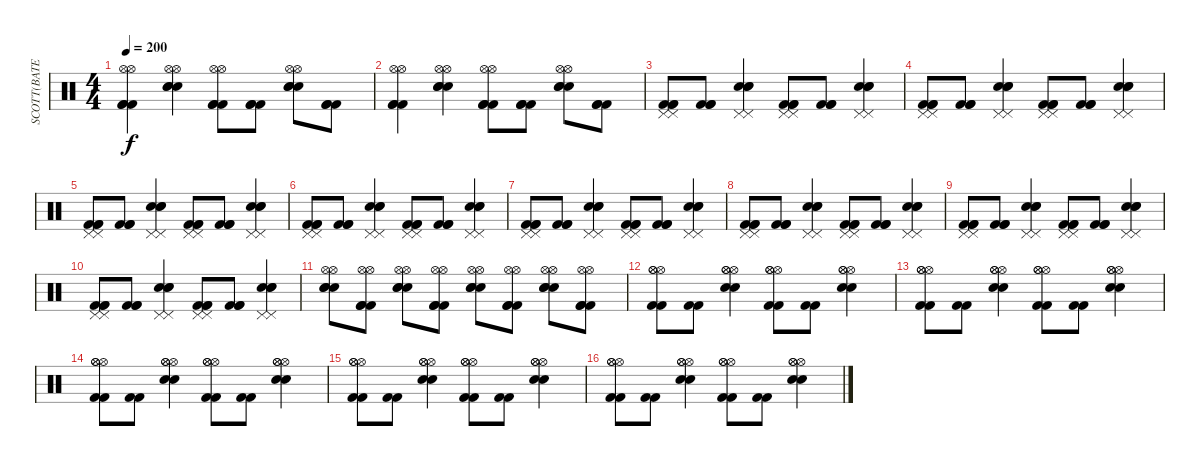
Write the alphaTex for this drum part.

\track ("SCOTT(BATERIA)" "SCOTT(BATE") {instrument percussion}
\staff {score}
\articulation defaults
\ts (4 4)
\tempo 200
\clef neutral
\ks c
("Kick (hit) 2" "Kick (hit) 2" "Kick (hit) 2" "Hi-Hat (open)" "Hi-Hat (open)").4{dy f} ("Snare (hit) 2" "Snare (hit) 2" "Snare (hit) 2" "Hi-Hat (open)" "Hi-Hat (open)").4 ("Kick (hit) 2" "Kick (hit) 2" "Kick (hit) 2" "Hi-Hat (open)" "Hi-Hat (open)").8 ("Kick (hit) 2" "Kick (hit) 2" "Kick (hit) 2").8 ("Snare (hit) 2" "Snare (hit) 2" "Snare (hit) 2" "Hi-Hat (open)" "Hi-Hat (open)").8 ("Kick (hit) 2" "Kick (hit) 2" "Kick (hit) 2").8 |
("Kick (hit) 2" "Kick (hit) 2" "Kick (hit) 2" "Hi-Hat (open)" "Hi-Hat (open)").4 ("Snare (hit) 2" "Snare (hit) 2" "Snare (hit) 2" "Hi-Hat (open)" "Hi-Hat (open)").4 ("Kick (hit) 2" "Kick (hit) 2" "Kick (hit) 2" "Hi-Hat (open)" "Hi-Hat (open)").8 ("Kick (hit) 2" "Kick (hit) 2" "Kick (hit) 2").8 ("Snare (hit) 2" "Snare (hit) 2" "Snare (hit) 2" "Hi-Hat (open)" "Hi-Hat (open)").8 ("Kick (hit) 2" "Kick (hit) 2" "Kick (hit) 2").8 |
("Kick (hit) 2" "Kick (hit) 2" "Kick (hit) 2" "Pedal Hi-Hat (hit)" "Pedal Hi-Hat (hit)").8 ("Kick (hit) 2" "Kick (hit) 2" "Kick (hit) 2").8 ("Snare (hit) 2" "Snare (hit) 2" "Snare (hit) 2" "Pedal Hi-Hat (hit)" "Pedal Hi-Hat (hit)").4 ("Kick (hit) 2" "Kick (hit) 2" "Kick (hit) 2" "Pedal Hi-Hat (hit)" "Pedal Hi-Hat (hit)").8 ("Kick (hit) 2" "Kick (hit) 2" "Kick (hit) 2").8 ("Snare (hit) 2" "Snare (hit) 2" "Snare (hit) 2" "Pedal Hi-Hat (hit)" "Pedal Hi-Hat (hit)").4 |
("Kick (hit) 2" "Kick (hit) 2" "Kick (hit) 2" "Pedal Hi-Hat (hit)" "Pedal Hi-Hat (hit)").8 ("Kick (hit) 2" "Kick (hit) 2" "Kick (hit) 2").8 ("Snare (hit) 2" "Snare (hit) 2" "Snare (hit) 2" "Pedal Hi-Hat (hit)" "Pedal Hi-Hat (hit)").4 ("Kick (hit) 2" "Kick (hit) 2" "Kick (hit) 2" "Pedal Hi-Hat (hit)" "Pedal Hi-Hat (hit)").8 ("Kick (hit) 2" "Kick (hit) 2" "Kick (hit) 2").8 ("Snare (hit) 2" "Snare (hit) 2" "Snare (hit) 2" "Pedal Hi-Hat (hit)" "Pedal Hi-Hat (hit)").4 |
("Kick (hit) 2" "Kick (hit) 2" "Kick (hit) 2" "Pedal Hi-Hat (hit)" "Pedal Hi-Hat (hit)").8 ("Kick (hit) 2" "Kick (hit) 2" "Kick (hit) 2").8 ("Snare (hit) 2" "Snare (hit) 2" "Snare (hit) 2" "Pedal Hi-Hat (hit)" "Pedal Hi-Hat (hit)").4 ("Kick (hit) 2" "Kick (hit) 2" "Kick (hit) 2" "Pedal Hi-Hat (hit)" "Pedal Hi-Hat (hit)").8 ("Kick (hit) 2" "Kick (hit) 2" "Kick (hit) 2").8 ("Snare (hit) 2" "Snare (hit) 2" "Snare (hit) 2" "Pedal Hi-Hat (hit)" "Pedal Hi-Hat (hit)").4 |
("Kick (hit) 2" "Kick (hit) 2" "Kick (hit) 2" "Pedal Hi-Hat (hit)" "Pedal Hi-Hat (hit)").8 ("Kick (hit) 2" "Kick (hit) 2" "Kick (hit) 2").8 ("Snare (hit) 2" "Snare (hit) 2" "Snare (hit) 2" "Pedal Hi-Hat (hit)" "Pedal Hi-Hat (hit)").4 ("Kick (hit) 2" "Kick (hit) 2" "Kick (hit) 2" "Pedal Hi-Hat (hit)" "Pedal Hi-Hat (hit)").8 ("Kick (hit) 2" "Kick (hit) 2" "Kick (hit) 2").8 ("Snare (hit) 2" "Snare (hit) 2" "Snare (hit) 2" "Pedal Hi-Hat (hit)" "Pedal Hi-Hat (hit)").4 |
("Kick (hit) 2" "Kick (hit) 2" "Kick (hit) 2" "Pedal Hi-Hat (hit)" "Pedal Hi-Hat (hit)").8 ("Kick (hit) 2" "Kick (hit) 2" "Kick (hit) 2").8 ("Snare (hit) 2" "Snare (hit) 2" "Snare (hit) 2" "Pedal Hi-Hat (hit)" "Pedal Hi-Hat (hit)").4 ("Kick (hit) 2" "Kick (hit) 2" "Kick (hit) 2" "Pedal Hi-Hat (hit)" "Pedal Hi-Hat (hit)").8 ("Kick (hit) 2" "Kick (hit) 2" "Kick (hit) 2").8 ("Snare (hit) 2" "Snare (hit) 2" "Snare (hit) 2" "Pedal Hi-Hat (hit)" "Pedal Hi-Hat (hit)").4 |
("Kick (hit) 2" "Kick (hit) 2" "Kick (hit) 2" "Pedal Hi-Hat (hit)" "Pedal Hi-Hat (hit)").8 ("Kick (hit) 2" "Kick (hit) 2" "Kick (hit) 2").8 ("Snare (hit) 2" "Snare (hit) 2" "Snare (hit) 2" "Pedal Hi-Hat (hit)" "Pedal Hi-Hat (hit)").4 ("Kick (hit) 2" "Kick (hit) 2" "Kick (hit) 2" "Pedal Hi-Hat (hit)" "Pedal Hi-Hat (hit)").8 ("Kick (hit) 2" "Kick (hit) 2" "Kick (hit) 2").8 ("Snare (hit) 2" "Snare (hit) 2" "Snare (hit) 2" "Pedal Hi-Hat (hit)" "Pedal Hi-Hat (hit)").4 |
("Kick (hit) 2" "Kick (hit) 2" "Kick (hit) 2" "Pedal Hi-Hat (hit)" "Pedal Hi-Hat (hit)").8 ("Kick (hit) 2" "Kick (hit) 2" "Kick (hit) 2").8 ("Snare (hit) 2" "Snare (hit) 2" "Snare (hit) 2" "Pedal Hi-Hat (hit)" "Pedal Hi-Hat (hit)").4 ("Kick (hit) 2" "Kick (hit) 2" "Kick (hit) 2" "Pedal Hi-Hat (hit)" "Pedal Hi-Hat (hit)").8 ("Kick (hit) 2" "Kick (hit) 2" "Kick (hit) 2").8 ("Snare (hit) 2" "Snare (hit) 2" "Snare (hit) 2" "Pedal Hi-Hat (hit)" "Pedal Hi-Hat (hit)").4 |
("Kick (hit) 2" "Kick (hit) 2" "Kick (hit) 2" "Pedal Hi-Hat (hit)" "Pedal Hi-Hat (hit)").8 ("Kick (hit) 2" "Kick (hit) 2" "Kick (hit) 2").8 ("Snare (hit) 2" "Snare (hit) 2" "Snare (hit) 2" "Pedal Hi-Hat (hit)" "Pedal Hi-Hat (hit)").4 ("Kick (hit) 2" "Kick (hit) 2" "Kick (hit) 2" "Pedal Hi-Hat (hit)" "Pedal Hi-Hat (hit)").8 ("Kick (hit) 2" "Kick (hit) 2" "Kick (hit) 2").8 ("Snare (hit) 2" "Snare (hit) 2" "Snare (hit) 2" "Pedal Hi-Hat (hit)" "Pedal Hi-Hat (hit)").4 |
("Snare (hit) 2" "Snare (hit) 2" "Snare (hit) 2" "Hi-Hat (open)" "Hi-Hat (open)").8 ("Kick (hit) 2" "Kick (hit) 2" "Kick (hit) 2" "Hi-Hat (open)" "Hi-Hat (open)").8 ("Snare (hit) 2" "Snare (hit) 2" "Snare (hit) 2" "Hi-Hat (open)" "Hi-Hat (open)").8 ("Kick (hit) 2" "Kick (hit) 2" "Kick (hit) 2" "Hi-Hat (open)" "Hi-Hat (open)").8 ("Snare (hit) 2" "Snare (hit) 2" "Snare (hit) 2" "Hi-Hat (open)" "Hi-Hat (open)").8 ("Kick (hit) 2" "Kick (hit) 2" "Kick (hit) 2" "Hi-Hat (open)" "Hi-Hat (open)").8 ("Snare (hit) 2" "Snare (hit) 2" "Snare (hit) 2" "Hi-Hat (open)" "Hi-Hat (open)").8 ("Kick (hit) 2" "Kick (hit) 2" "Kick (hit) 2" "Hi-Hat (open)" "Hi-Hat (open)").8 |
("Kick (hit) 2" "Kick (hit) 2" "Hi-Hat (open)" "Hi-Hat (open)" "Hi-Hat (open)").8 ("Kick (hit) 2" "Kick (hit) 2").8 ("Snare (hit) 2" "Snare (hit) 2" "Hi-Hat (open)" "Hi-Hat (open)" "Hi-Hat (open)").4 ("Kick (hit) 2" "Kick (hit) 2" "Hi-Hat (open)" "Hi-Hat (open)" "Hi-Hat (open)").8 ("Kick (hit) 2" "Kick (hit) 2").8 ("Snare (hit) 2" "Snare (hit) 2" "Hi-Hat (open)" "Hi-Hat (open)" "Hi-Hat (open)").4 |
("Kick (hit) 2" "Kick (hit) 2" "Hi-Hat (open)" "Hi-Hat (open)" "Hi-Hat (open)").8 ("Kick (hit) 2" "Kick (hit) 2").8 ("Snare (hit) 2" "Snare (hit) 2" "Hi-Hat (open)" "Hi-Hat (open)" "Hi-Hat (open)").4 ("Kick (hit) 2" "Kick (hit) 2" "Hi-Hat (open)" "Hi-Hat (open)" "Hi-Hat (open)").8 ("Kick (hit) 2" "Kick (hit) 2").8 ("Snare (hit) 2" "Snare (hit) 2" "Hi-Hat (open)" "Hi-Hat (open)" "Hi-Hat (open)").4 |
("Kick (hit) 2" "Kick (hit) 2" "Hi-Hat (open)" "Hi-Hat (open)" "Hi-Hat (open)").8 ("Kick (hit) 2" "Kick (hit) 2").8 ("Snare (hit) 2" "Snare (hit) 2" "Hi-Hat (open)" "Hi-Hat (open)" "Hi-Hat (open)").4 ("Kick (hit) 2" "Kick (hit) 2" "Hi-Hat (open)" "Hi-Hat (open)" "Hi-Hat (open)").8 ("Kick (hit) 2" "Kick (hit) 2").8 ("Snare (hit) 2" "Snare (hit) 2" "Hi-Hat (open)" "Hi-Hat (open)" "Hi-Hat (open)").4 |
("Kick (hit) 2" "Kick (hit) 2" "Hi-Hat (open)" "Hi-Hat (open)" "Hi-Hat (open)").8 ("Kick (hit) 2" "Kick (hit) 2").8 ("Snare (hit) 2" "Snare (hit) 2" "Hi-Hat (open)" "Hi-Hat (open)" "Hi-Hat (open)").4 ("Kick (hit) 2" "Kick (hit) 2" "Hi-Hat (open)" "Hi-Hat (open)" "Hi-Hat (open)").8 ("Kick (hit) 2" "Kick (hit) 2").8 ("Snare (hit) 2" "Snare (hit) 2" "Hi-Hat (open)" "Hi-Hat (open)" "Hi-Hat (open)").4 |
("Kick (hit) 2" "Kick (hit) 2" "Hi-Hat (open)" "Hi-Hat (open)" "Hi-Hat (open)").8 ("Kick (hit) 2" "Kick (hit) 2").8 ("Snare (hit) 2" "Snare (hit) 2" "Hi-Hat (open)" "Hi-Hat (open)" "Hi-Hat (open)").4 ("Kick (hit) 2" "Kick (hit) 2" "Hi-Hat (open)" "Hi-Hat (open)" "Hi-Hat (open)").8 ("Kick (hit) 2" "Kick (hit) 2").8 ("Snare (hit) 2" "Snare (hit) 2" "Hi-Hat (open)" "Hi-Hat (open)" "Hi-Hat (open)").4
